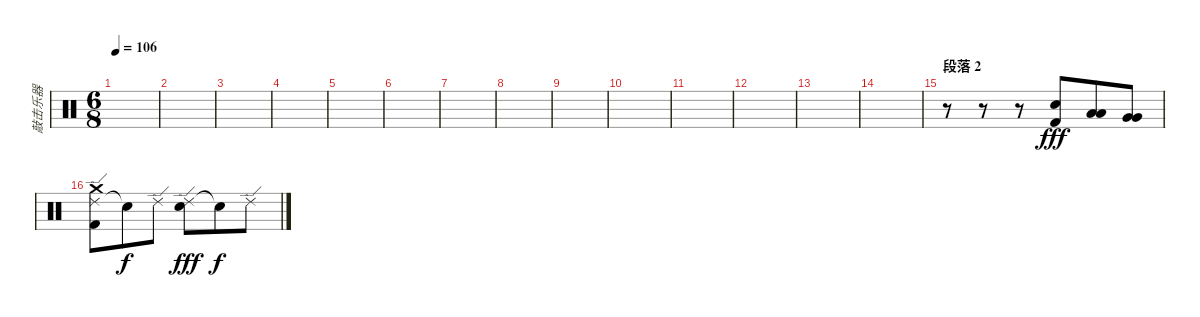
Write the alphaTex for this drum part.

\track ("敲击乐器" "敲击乐器") {instrument percussion}
\staff {score}
\articulation defaults
\ts (6 8)
\tempo 106
\clef neutral
\ks c
|
|
|
|
|
|
|
|
|
|
|
|
|
|
\section ("" "段落 2")
r.8 r.8 r.8 ("Snare (hit) 2" "Kick (hit) 2").8{dy fff} ("Low Tom (hit)" "Low Tom (hit)").8 ("Very Low Tom (hit)" "Very Low Tom (hit)").8 |
("Ride (edge) 2" "Crash medium (hit)" "Kick (hit) 2").8 "Snare (hit)"{t}.8{dy f} "Ride (edge) 2".8 ("Ride (edge) 2" "Snare (hit) 2").8{dy fff} "Snare (hit)"{t}.8{dy f} "Ride (edge) 2".8
